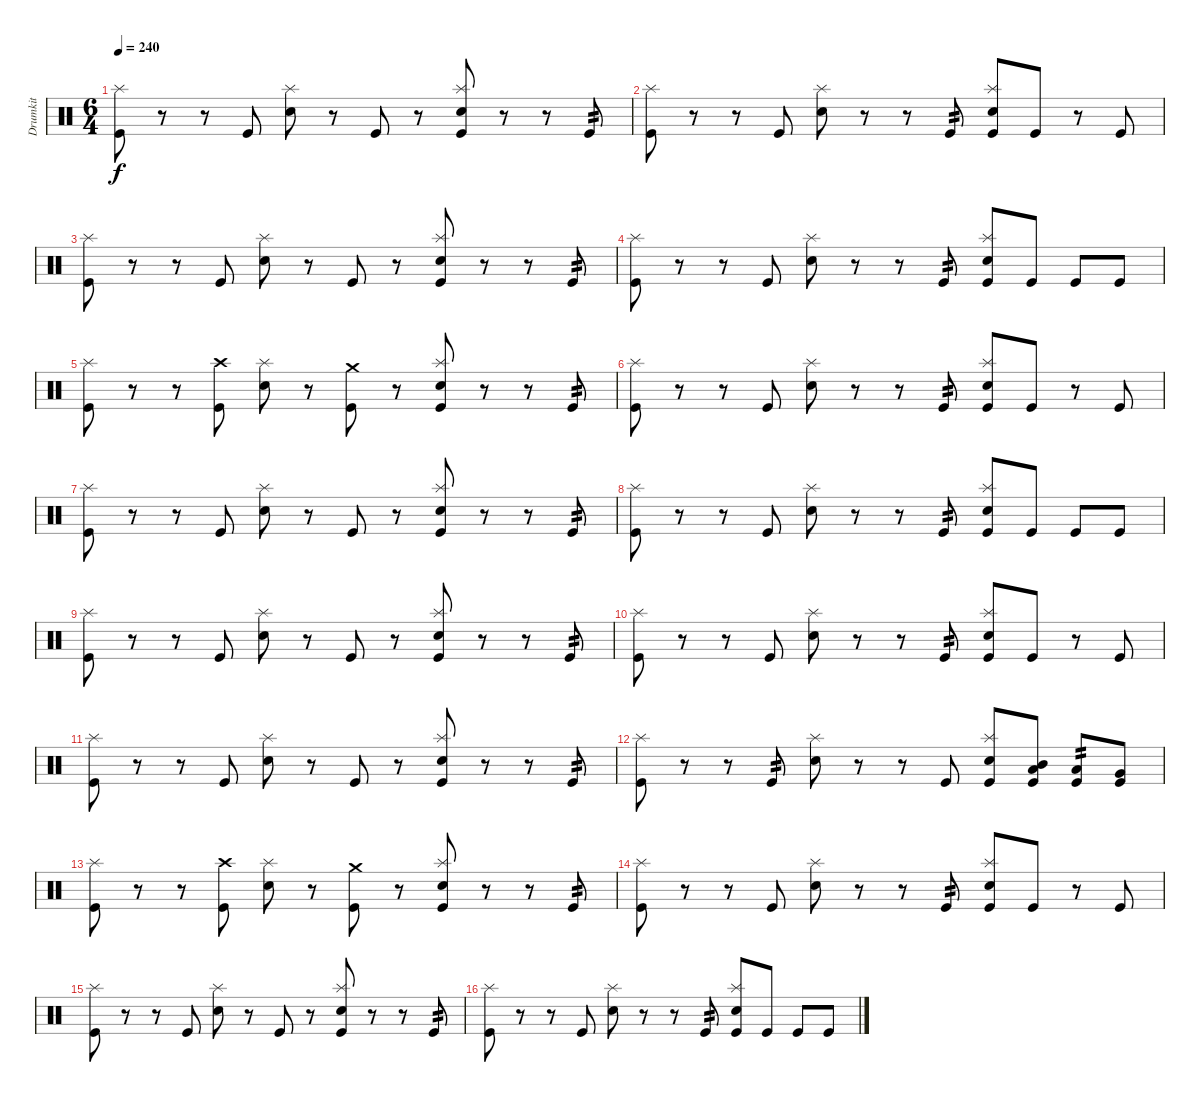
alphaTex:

\track ("Drumkit" "Drumkit") {instrument percussion}
\staff {score}
\articulation defaults
\ts (6 4)
\tempo 240
\clef neutral
\ks c
("Kick (hit)" "Splash (hit)").8{dy f} r.8 r.8 "Kick (hit)".8 ("Snare (hit) 2" "Splash (hit)").8 r.8 "Kick (hit)".8 r.8 ("Kick (hit)" "Snare (hit) 2" "Splash (hit)").8 r.8 r.8 "Kick (hit)".8{tp 2} |
("Kick (hit)" "Splash (hit)").8 r.8 r.8 "Kick (hit)".8 ("Snare (hit) 2" "Splash (hit)").8 r.8 r.8 "Kick (hit)".8{tp 2} ("Kick (hit)" "Snare (hit) 2" "Splash (hit)").8 "Kick (hit)".8 r.8 "Kick (hit)".8 |
("Kick (hit)" "Splash (hit)").8 r.8 r.8 "Kick (hit)".8 ("Snare (hit) 2" "Splash (hit)").8 r.8 "Kick (hit)".8 r.8 ("Kick (hit)" "Snare (hit) 2" "Splash (hit)").8 r.8 r.8 "Kick (hit)".8{tp 2} |
("Kick (hit)" "Splash (hit)").8 r.8 r.8 "Kick (hit)".8 ("Snare (hit) 2" "Splash (hit)").8 r.8 r.8 "Kick (hit)".8{tp 2} ("Kick (hit)" "Snare (hit) 2" "Splash (hit)").8 "Kick (hit)".8 "Kick (hit)".8 "Kick (hit)".8 |
("Kick (hit)" "Splash (hit)").8 r.8 r.8 ("Kick (hit)" "Crash high (hit)").8 ("Snare (hit) 2" "Splash (hit)").8 r.8 ("Kick (hit)" "Crash medium (hit)").8 r.8 ("Kick (hit)" "Snare (hit) 2" "Splash (hit)").8 r.8 r.8 "Kick (hit)".8{tp 2} |
("Kick (hit)" "Splash (hit)").8 r.8 r.8 "Kick (hit)".8 ("Snare (hit) 2" "Splash (hit)").8 r.8 r.8 "Kick (hit)".8{tp 2} ("Kick (hit)" "Snare (hit) 2" "Splash (hit)").8 "Kick (hit)".8 r.8 "Kick (hit)".8 |
("Kick (hit)" "Splash (hit)").8 r.8 r.8 "Kick (hit)".8 ("Snare (hit) 2" "Splash (hit)").8 r.8 "Kick (hit)".8 r.8 ("Kick (hit)" "Snare (hit) 2" "Splash (hit)").8 r.8 r.8 "Kick (hit)".8{tp 2} |
("Kick (hit)" "Splash (hit)").8 r.8 r.8 "Kick (hit)".8 ("Snare (hit) 2" "Splash (hit)").8 r.8 r.8 "Kick (hit)".8{tp 2} ("Kick (hit)" "Snare (hit) 2" "Splash (hit)").8 "Kick (hit)".8 "Kick (hit)".8 "Kick (hit)".8 |
("Kick (hit)" "Splash (hit)").8 r.8 r.8 "Kick (hit)".8 ("Snare (hit) 2" "Splash (hit)").8 r.8 "Kick (hit)".8 r.8 ("Kick (hit)" "Snare (hit) 2" "Splash (hit)").8 r.8 r.8 "Kick (hit)".8{tp 2} |
("Kick (hit)" "Splash (hit)").8 r.8 r.8 "Kick (hit)".8 ("Snare (hit) 2" "Splash (hit)").8 r.8 r.8 "Kick (hit)".8{tp 2} ("Kick (hit)" "Snare (hit) 2" "Splash (hit)").8 "Kick (hit)".8 r.8 "Kick (hit)".8 |
("Kick (hit)" "Splash (hit)").8 r.8 r.8 "Kick (hit)".8 ("Snare (hit) 2" "Splash (hit)").8 r.8 "Kick (hit)".8 r.8 ("Kick (hit)" "Snare (hit) 2" "Splash (hit)").8 r.8 r.8 "Kick (hit)".8{tp 2} |
("Kick (hit)" "Splash (hit)").8 r.8 r.8 "Kick (hit)".8{tp 2} ("Snare (hit) 2" "Splash (hit)").8 r.8 r.8 "Kick (hit)".8 ("Kick (hit)" "Snare (hit) 2" "Splash (hit)").8 ("Kick (hit)" "Low Tom (hit)" "Mid Tom (hit)").8 ("Kick (hit)" "Low Tom (hit)").8{tp 2} ("Kick (hit)" "Very Low Tom (hit)").8 |
("Kick (hit)" "Splash (hit)").8 r.8 r.8 ("Kick (hit)" "Crash high (hit)").8 ("Snare (hit) 2" "Splash (hit)").8 r.8 ("Kick (hit)" "Crash medium (hit)").8 r.8 ("Kick (hit)" "Snare (hit) 2" "Splash (hit)").8 r.8 r.8 "Kick (hit)".8{tp 2} |
("Kick (hit)" "Splash (hit)").8 r.8 r.8 "Kick (hit)".8 ("Snare (hit) 2" "Splash (hit)").8 r.8 r.8 "Kick (hit)".8{tp 2} ("Kick (hit)" "Snare (hit) 2" "Splash (hit)").8 "Kick (hit)".8 r.8 "Kick (hit)".8 |
("Kick (hit)" "Splash (hit)").8 r.8 r.8 "Kick (hit)".8 ("Snare (hit) 2" "Splash (hit)").8 r.8 "Kick (hit)".8 r.8 ("Kick (hit)" "Snare (hit) 2" "Splash (hit)").8 r.8 r.8 "Kick (hit)".8{tp 2} |
("Kick (hit)" "Splash (hit)").8 r.8 r.8 "Kick (hit)".8 ("Snare (hit) 2" "Splash (hit)").8 r.8 r.8 "Kick (hit)".8{tp 2} ("Kick (hit)" "Snare (hit) 2" "Splash (hit)").8 "Kick (hit)".8 "Kick (hit)".8 "Kick (hit)".8
